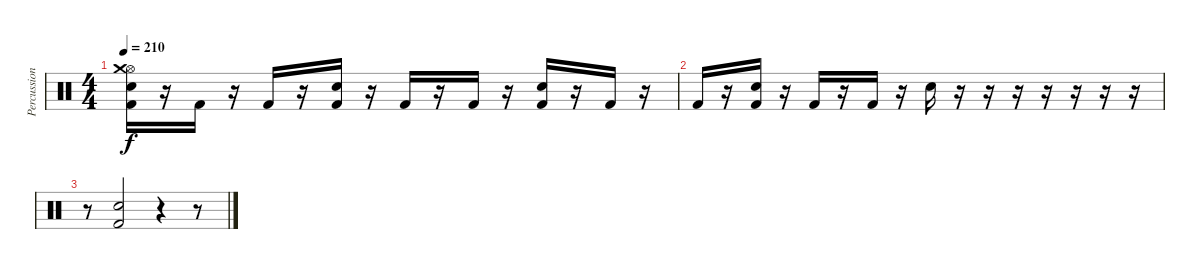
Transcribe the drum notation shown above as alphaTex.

\track ("Percussion" "Percussion") {instrument percussion}
\staff {score}
\articulation defaults
\ts (4 4)
\tempo 210
\clef neutral
\ks c
("Kick (hit) 2" "Electric Snare (hit)" "Hi-Hat (open)" "Crash medium (hit)").16{dy f} r.16 "Kick (hit) 2".16 r.16 "Kick (hit) 2".16 r.16 ("Kick (hit) 2" "Electric Snare (hit)").16 r.16 "Kick (hit) 2".16 r.16 "Kick (hit) 2".16 r.16 ("Kick (hit) 2" "Electric Snare (hit)").16 r.16 "Kick (hit) 2".16 r.16 |
"Kick (hit) 2".16 r.16 ("Kick (hit) 2" "Electric Snare (hit)").16 r.16 "Kick (hit) 2".16 r.16 "Kick (hit) 2".16 r.16 "Electric Snare (hit)".16 r.16 r.16 r.16 r.16 r.16 r.16 r.16 |
r.8 ("Kick (hit) 2" "Electric Snare (hit)").2 r.4 r.8
